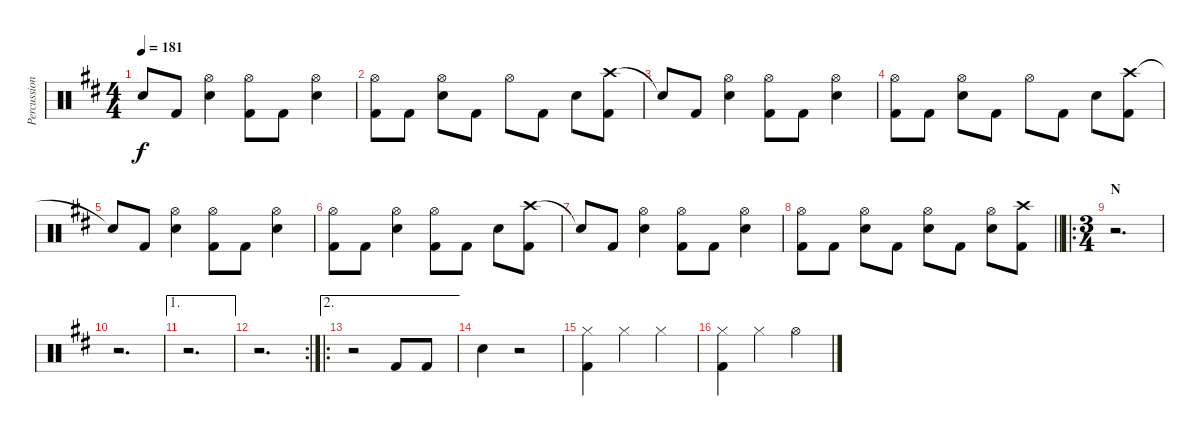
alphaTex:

\track ("Percussion" "Percussion") {instrument percussion}
\staff {score}
\articulation defaults
\ts (4 4)
\tempo 181
\clef neutral
\ks d "Snare (hit)"{t}.8{dy f} "Kick (hit) 2".8
("Hi-Hat (open)" "Snare (hit) 2").4 ("Hi-Hat (open)" "Kick (hit) 2").8 "Kick (hit) 2".8 ("Hi-Hat (open)" "Snare (hit) 2").4 |
("Hi-Hat (open)" "Kick (hit) 2").8 "Kick (hit) 2".8 ("Hi-Hat (open)" "Snare (hit) 2").8 "Kick (hit) 2".8 "Hi-Hat (open)".8 "Kick (hit) 2".8 "Snare (hit) 2".8 ("Crash high (hit)" "Kick (hit) 2").8 |
"Snare (hit)"{t}.8 "Kick (hit) 2".8 ("Hi-Hat (open)" "Snare (hit) 2").4 ("Hi-Hat (open)" "Kick (hit) 2").8 "Kick (hit) 2".8 ("Hi-Hat (open)" "Snare (hit) 2").4 |
("Hi-Hat (open)" "Kick (hit) 2").8 "Kick (hit) 2".8 ("Hi-Hat (open)" "Snare (hit) 2").8 "Kick (hit) 2".8 "Hi-Hat (open)".8 "Kick (hit) 2".8 "Snare (hit) 2".8 ("Crash high (hit)" "Kick (hit) 2").8 |
"Snare (hit)"{t}.8 "Kick (hit) 2".8 ("Hi-Hat (open)" "Snare (hit) 2").4 ("Hi-Hat (open)" "Kick (hit) 2").8 "Kick (hit) 2".8 ("Hi-Hat (open)" "Snare (hit) 2").4 |
("Hi-Hat (open)" "Kick (hit) 2").8 "Kick (hit) 2".8 ("Hi-Hat (open)" "Snare (hit) 2").4 ("Hi-Hat (open)" "Kick (hit) 2").8 "Kick (hit) 2".8 "Snare (hit) 2".8 ("Crash high (hit)" "Kick (hit) 2").8 |
"Snare (hit)"{t}.8 "Kick (hit) 2".8 ("Hi-Hat (open)" "Snare (hit) 2").4 ("Hi-Hat (open)" "Kick (hit) 2").8 "Kick (hit) 2".8 ("Hi-Hat (open)" "Snare (hit) 2").4 |
\barLineRight lightlight
("Hi-Hat (open)" "Kick (hit) 2").8 "Kick (hit) 2".8 ("Hi-Hat (open)" "Snare (hit) 2").8 "Kick (hit) 2".8 ("Hi-Hat (open)" "Snare (hit) 2").8 "Kick (hit) 2".8 ("Hi-Hat (open)" "Snare (hit) 2").8 ("Crash high (hit)" "Kick (hit) 2").8 |
\ro
\ts (3 4)
\section ("" "N")
r.2{d} |
r.2{d} |
\ae 1
r.2{d} |
\rc 2
r.2{d} |
\ae 2
\ro
r.2 "Kick (hit) 2".8 "Kick (hit) 2".8 |
"Snare (hit) 2".4 r.2 |
("Hi-Hat (closed)" "Kick (hit) 2").4 "Hi-Hat (closed)".4 "Hi-Hat (closed)".4 |
("Hi-Hat (closed)" "Kick (hit) 2").4 "Hi-Hat (closed)".4 "Hi-Hat (open)".4
